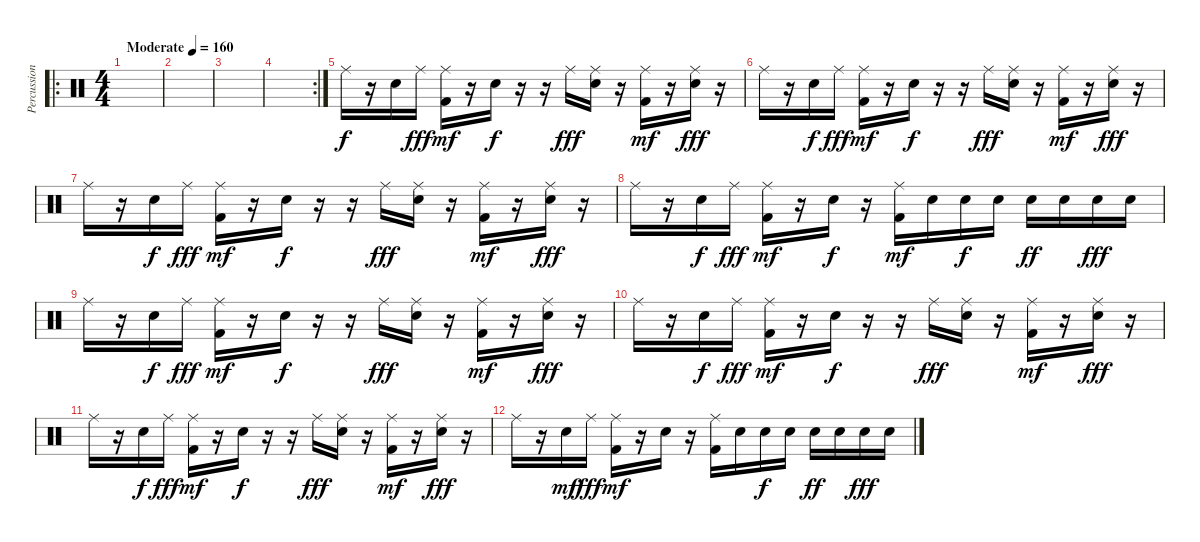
\track ("Percussion" "Percussion") {instrument percussion}
\staff {score}
\articulation defaults
\ro
\ts (4 4)
\tempo (160 "Moderate")
\clef neutral
\ks c
|
|
|
\rc 2
|
"Ride (middle)".16 r.16 "Electric Snare (hit)".16{dy f} "Ride (middle)".16{dy fff} ("Ride (middle)" "Kick (hit) 2").16{dy mf} r.16 "Electric Snare (hit)".16{dy f} r.16 r.16 "Ride (middle)".16{dy fff} ("Ride (middle)" "Electric Snare (hit)").16 r.16 ("Ride (middle)" "Kick (hit) 2").16{dy mf} r.16 ("Ride (middle)" "Electric Snare (hit)").16{dy fff} r.16 |
"Ride (middle)".16 r.16 "Electric Snare (hit)".16{dy f} "Ride (middle)".16{dy fff} ("Ride (middle)" "Kick (hit) 2").16{dy mf} r.16 "Electric Snare (hit)".16{dy f} r.16 r.16 "Ride (middle)".16{dy fff} ("Ride (middle)" "Electric Snare (hit)").16 r.16 ("Ride (middle)" "Kick (hit) 2").16{dy mf} r.16 ("Ride (middle)" "Electric Snare (hit)").16{dy fff} r.16 |
"Ride (middle)".16 r.16 "Electric Snare (hit)".16{dy f} "Ride (middle)".16{dy fff} ("Ride (middle)" "Kick (hit) 2").16{dy mf} r.16 "Electric Snare (hit)".16{dy f} r.16 r.16 "Ride (middle)".16{dy fff} ("Ride (middle)" "Electric Snare (hit)").16 r.16 ("Ride (middle)" "Kick (hit) 2").16{dy mf} r.16 ("Ride (middle)" "Electric Snare (hit)").16{dy fff} r.16 |
"Ride (middle)".16 r.16 "Electric Snare (hit)".16{dy f} "Ride (middle)".16{dy fff} ("Ride (middle)" "Kick (hit) 2").16{dy mf} r.16 "Electric Snare (hit)".16{dy f} r.16 ("Ride (middle)" "Kick (hit) 2").16{dy mf} "Electric Snare (hit)".16 "Electric Snare (hit)".16{dy f} "Electric Snare (hit)".16 "Electric Snare (hit)".16{dy ff} "Electric Snare (hit)".16 "Electric Snare (hit)".16{dy fff} "Electric Snare (hit)".16 |
"Ride (middle)".16 r.16 "Electric Snare (hit)".16{dy f} "Ride (middle)".16{dy fff} ("Ride (middle)" "Kick (hit) 2").16{dy mf} r.16 "Electric Snare (hit)".16{dy f} r.16 r.16 "Ride (middle)".16{dy fff} ("Ride (middle)" "Electric Snare (hit)").16 r.16 ("Ride (middle)" "Kick (hit) 2").16{dy mf} r.16 ("Ride (middle)" "Electric Snare (hit)").16{dy fff} r.16 |
"Ride (middle)".16 r.16 "Electric Snare (hit)".16{dy f} "Ride (middle)".16{dy fff} ("Ride (middle)" "Kick (hit) 2").16{dy mf} r.16 "Electric Snare (hit)".16{dy f} r.16 r.16 "Ride (middle)".16{dy fff} ("Ride (middle)" "Electric Snare (hit)").16 r.16 ("Ride (middle)" "Kick (hit) 2").16{dy mf} r.16 ("Ride (middle)" "Electric Snare (hit)").16{dy fff} r.16 |
"Ride (middle)".16 r.16 "Electric Snare (hit)".16{dy f} "Ride (middle)".16{dy fff} ("Ride (middle)" "Kick (hit) 2").16{dy mf} r.16 "Electric Snare (hit)".16{dy f} r.16 r.16 "Ride (middle)".16{dy fff} ("Ride (middle)" "Electric Snare (hit)").16 r.16 ("Ride (middle)" "Kick (hit) 2").16{dy mf} r.16 ("Ride (middle)" "Electric Snare (hit)").16{dy fff} r.16 |
"Ride (middle)".16 r.16 "Electric Snare (hit)".16{dy mf} "Ride (middle)".16{dy fff} ("Ride (middle)" "Kick (hit) 2").16{dy mf} r.16 "Electric Snare (hit)".16 r.16 ("Ride (middle)" "Kick (hit) 2").16 "Electric Snare (hit)".16 "Electric Snare (hit)".16{dy f} "Electric Snare (hit)".16 "Electric Snare (hit)".16{dy ff} "Electric Snare (hit)".16 "Electric Snare (hit)".16{dy fff} "Electric Snare (hit)".16
